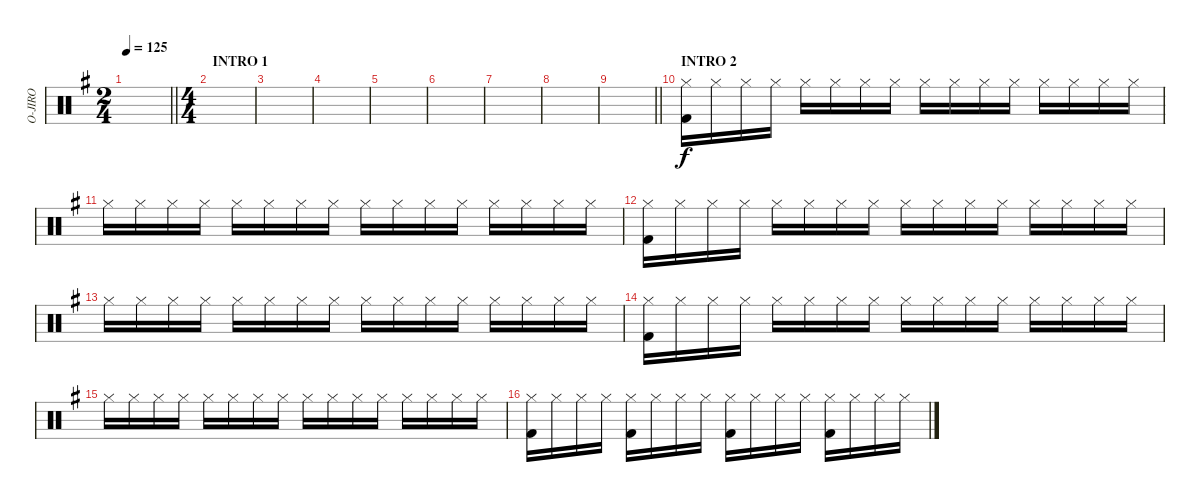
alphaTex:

\track ("O-JIRO" "O-JIRO") {instrument percussion}
\staff {score}
\articulation defaults
\ts (2 4)
\tempo 125
\clef neutral
\barLineRight lightlight
\ks g
|
\ts (4 4)
\section ("" "INTRO 1")
|
|
|
|
|
|
|
\barLineRight lightlight
|
\section ("" "INTRO 2")
("Hi-Hat (closed)" "Kick (hit) 2").16 "Hi-Hat (closed)".16 "Hi-Hat (closed)".16 "Hi-Hat (closed)".16 "Hi-Hat (closed)".16 "Hi-Hat (closed)".16 "Hi-Hat (closed)".16 "Hi-Hat (closed)".16 "Hi-Hat (closed)".16 "Hi-Hat (closed)".16 "Hi-Hat (closed)".16 "Hi-Hat (closed)".16 "Hi-Hat (closed)".16 "Hi-Hat (closed)".16 "Hi-Hat (closed)".16 "Hi-Hat (closed)".16 |
"Hi-Hat (closed)".16 "Hi-Hat (closed)".16 "Hi-Hat (closed)".16 "Hi-Hat (closed)".16 "Hi-Hat (closed)".16 "Hi-Hat (closed)".16 "Hi-Hat (closed)".16 "Hi-Hat (closed)".16 "Hi-Hat (closed)".16 "Hi-Hat (closed)".16 "Hi-Hat (closed)".16 "Hi-Hat (closed)".16 "Hi-Hat (closed)".16 "Hi-Hat (closed)".16 "Hi-Hat (closed)".16 "Hi-Hat (closed)".16 |
("Hi-Hat (closed)" "Kick (hit) 2").16 "Hi-Hat (closed)".16 "Hi-Hat (closed)".16 "Hi-Hat (closed)".16 "Hi-Hat (closed)".16 "Hi-Hat (closed)".16 "Hi-Hat (closed)".16 "Hi-Hat (closed)".16 "Hi-Hat (closed)".16 "Hi-Hat (closed)".16 "Hi-Hat (closed)".16 "Hi-Hat (closed)".16 "Hi-Hat (closed)".16 "Hi-Hat (closed)".16 "Hi-Hat (closed)".16 "Hi-Hat (closed)".16 |
"Hi-Hat (closed)".16 "Hi-Hat (closed)".16 "Hi-Hat (closed)".16 "Hi-Hat (closed)".16 "Hi-Hat (closed)".16 "Hi-Hat (closed)".16 "Hi-Hat (closed)".16 "Hi-Hat (closed)".16 "Hi-Hat (closed)".16 "Hi-Hat (closed)".16 "Hi-Hat (closed)".16 "Hi-Hat (closed)".16 "Hi-Hat (closed)".16 "Hi-Hat (closed)".16 "Hi-Hat (closed)".16 "Hi-Hat (closed)".16 |
("Hi-Hat (closed)" "Kick (hit) 2").16 "Hi-Hat (closed)".16 "Hi-Hat (closed)".16 "Hi-Hat (closed)".16 "Hi-Hat (closed)".16 "Hi-Hat (closed)".16 "Hi-Hat (closed)".16 "Hi-Hat (closed)".16 "Hi-Hat (closed)".16 "Hi-Hat (closed)".16 "Hi-Hat (closed)".16 "Hi-Hat (closed)".16 "Hi-Hat (closed)".16 "Hi-Hat (closed)".16 "Hi-Hat (closed)".16 "Hi-Hat (closed)".16 |
"Hi-Hat (closed)".16 "Hi-Hat (closed)".16 "Hi-Hat (closed)".16 "Hi-Hat (closed)".16 "Hi-Hat (closed)".16 "Hi-Hat (closed)".16 "Hi-Hat (closed)".16 "Hi-Hat (closed)".16 "Hi-Hat (closed)".16 "Hi-Hat (closed)".16 "Hi-Hat (closed)".16 "Hi-Hat (closed)".16 "Hi-Hat (closed)".16 "Hi-Hat (closed)".16 "Hi-Hat (closed)".16 "Hi-Hat (closed)".16 |
("Hi-Hat (closed)" "Kick (hit) 2").16 "Hi-Hat (closed)".16 "Hi-Hat (closed)".16 "Hi-Hat (closed)".16 ("Hi-Hat (closed)" "Kick (hit) 2").16 "Hi-Hat (closed)".16 "Hi-Hat (closed)".16 "Hi-Hat (closed)".16 ("Hi-Hat (closed)" "Kick (hit) 2").16 "Hi-Hat (closed)".16 "Hi-Hat (closed)".16 "Hi-Hat (closed)".16 ("Hi-Hat (closed)" "Kick (hit) 2").16 "Hi-Hat (closed)".16 "Hi-Hat (closed)".16 "Hi-Hat (closed)".16
